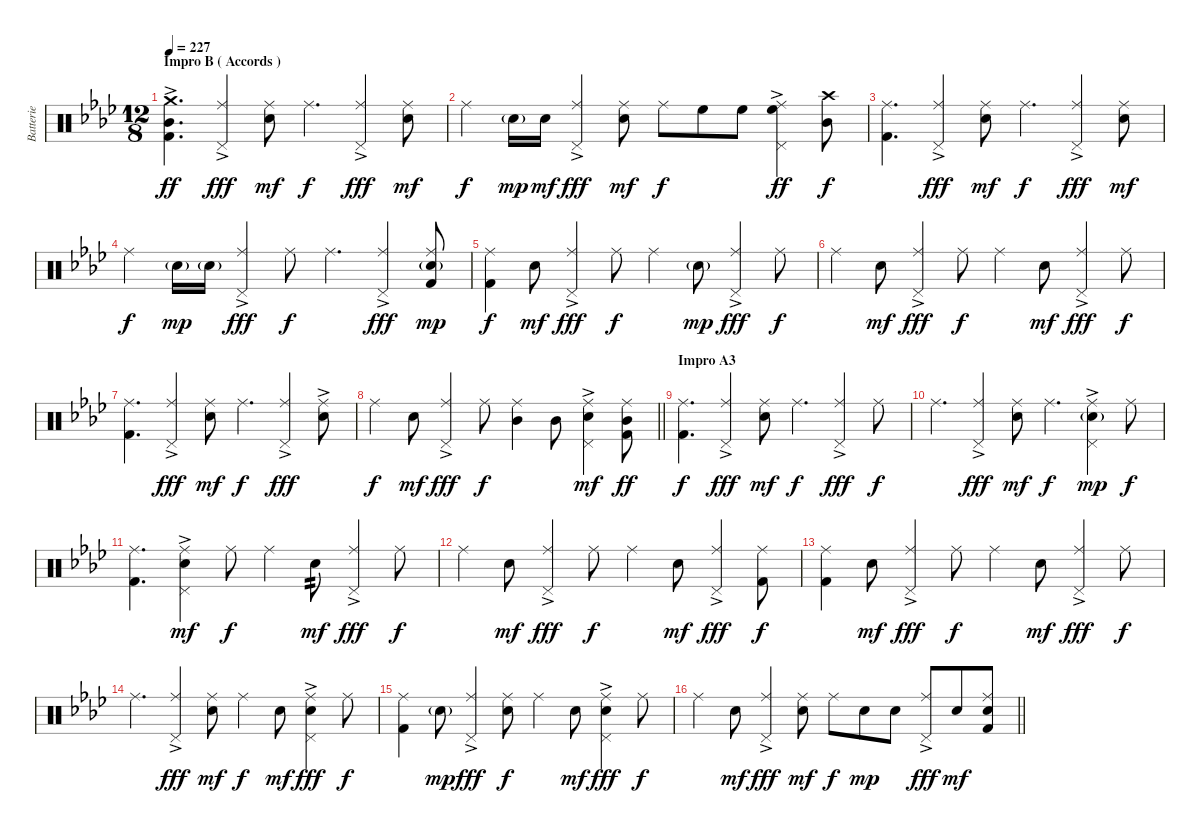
\track ("Batterie" "Batterie") {instrument percussion}
\staff {score}
\articulation defaults
\ts (12 8)
\section ("" "Impro B ( Accords )")
\tempo 227
\clef neutral
\ks fminor
("Crash medium (hit)"{ac} "Mid Tom (hit)" "Kick (hit) 2").4{d dy ff volume 13 balance 8} ("Ride (middle)" "Pedal Hi-Hat (hit)"{ac}).4{dy fff} ("Ride (middle)" "Snare (hit) 2").8{dy mf} "Ride (middle)".4{d dy f} ("Ride (middle)" "Pedal Hi-Hat (hit)"{ac}).4{dy fff} ("Ride (middle)" "Snare (hit) 2").8{dy mf} |
"Ride (middle)".4{dy f} "Snare (hit) 2"{g}.16{dy mp} "Snare (hit) 2".16{dy mf} ("Ride (middle)" "Pedal Hi-Hat (hit)"{ac}).4{dy fff} ("Ride (middle)" "Snare (hit) 2").8{dy mf} "Ride (middle)".8{dy f} "High Floor Tom (hit)".8 "High Floor Tom (hit)".8 ("Ride (middle)" "Pedal Hi-Hat (hit)"{ac} "High Floor Tom (hit)").4{dy ff} ("Crash high (hit)" "Mid Tom (hit)").8{dy f} |
("Ride (middle)" "Kick (hit) 2").4{d} ("Ride (middle)" "Pedal Hi-Hat (hit)"{ac}).4{dy fff} ("Ride (middle)" "Snare (hit) 2").8{dy mf} "Ride (middle)".4{d dy f} ("Ride (middle)" "Pedal Hi-Hat (hit)"{ac}).4{dy fff} ("Ride (middle)" "Snare (hit) 2").8{dy mf} |
"Ride (middle)".4{dy f} "Snare (hit) 2"{g}.16{dy mp} "Snare (hit) 2"{g}.16 ("Ride (middle)" "Pedal Hi-Hat (hit)"{ac}).4{dy fff} "Ride (middle)".8{dy f} "Ride (middle)".4{d} ("Ride (middle)" "Pedal Hi-Hat (hit)"{ac}).4{dy fff} ("Ride (middle)" "Snare (hit) 2"{g} "Kick (hit) 2").8{dy mp} |
("Ride (middle)" "Kick (hit) 2").4{dy f} "Snare (hit) 2".8{dy mf} ("Ride (middle)" "Pedal Hi-Hat (hit)"{ac}).4{dy fff} "Ride (middle)".8{dy f} "Ride (middle)".4 "Snare (hit) 2"{g}.8{dy mp} ("Ride (middle)" "Pedal Hi-Hat (hit)"{ac}).4{dy fff} "Ride (middle)".8{dy f} |
"Ride (middle)".4 "Snare (hit) 2".8{dy mf} ("Ride (middle)" "Pedal Hi-Hat (hit)"{ac}).4{dy fff} "Ride (middle)".8{dy f} "Ride (middle)".4 "Snare (hit) 2".8{dy mf} ("Ride (middle)" "Pedal Hi-Hat (hit)"{ac}).4{dy fff} "Ride (middle)".8{dy f} |
("Ride (middle)" "Kick (hit) 2").4{d} ("Ride (middle)" "Pedal Hi-Hat (hit)"{ac}).4{dy fff} ("Ride (middle)" "Snare (hit) 2").8{dy mf} "Ride (middle)".4{d dy f} ("Ride (middle)" "Pedal Hi-Hat (hit)"{ac}).4{dy fff} ("Ride (middle)"{ac} "Snare (hit) 2"{ac}).8 |
\barLineRight lightlight "Ride (middle)".4{dy f} "Snare (hit) 2".8{dy mf}
("Ride (middle)" "Pedal Hi-Hat (hit)"{ac}).4{dy fff} "Ride (middle)".8{dy f} ("Ride (middle)" "Mid Tom (hit)").4 "Mid Tom (hit)".8 ("Ride (middle)" "Pedal Hi-Hat (hit)"{ac} "Snare (hit) 2").4{dy mf} ("Ride (middle)" "Mid Tom (hit)" "Kick (hit) 2").8{dy ff} |
\section ("" "Impro A3")
("Ride (middle)" "Kick (hit) 2").4{d dy f volume 12 balance 8} ("Ride (middle)" "Pedal Hi-Hat (hit)"{ac}).4{dy fff} ("Ride (middle)" "Snare (hit) 2").8{dy mf} "Ride (middle)".4{d dy f} ("Ride (middle)" "Pedal Hi-Hat (hit)"{ac}).4{dy fff} "Ride (middle)".8{dy f} |
"Ride (middle)".4{d} ("Ride (middle)" "Pedal Hi-Hat (hit)"{ac}).4{dy fff} ("Ride (middle)" "Snare (hit) 2").8{dy mf} "Ride (middle)".4{d dy f} ("Ride (middle)" "Pedal Hi-Hat (hit)"{ac} "Snare (hit) 2"{g}).4{dy mp} "Ride (middle)".8{dy f} |
("Ride (middle)" "Kick (hit) 2").4{d} ("Ride (middle)" "Pedal Hi-Hat (hit)"{ac} "Snare (hit) 2").4{dy mf} "Ride (middle)".8{dy f} "Ride (middle)".4 "Snare (hit) 2".8{tp 2 dy mf} ("Ride (middle)" "Pedal Hi-Hat (hit)"{ac}).4{dy fff} "Ride (middle)".8{dy f} |
"Ride (middle)".4 "Snare (hit) 2".8{dy mf} ("Ride (middle)" "Pedal Hi-Hat (hit)"{ac}).4{dy fff} "Ride (middle)".8{dy f} "Ride (middle)".4 "Snare (hit) 2".8{dy mf} ("Ride (middle)" "Pedal Hi-Hat (hit)"{ac}).4{dy fff} ("Ride (middle)" "Kick (hit) 2").8{dy f} |
("Ride (middle)" "Kick (hit) 2").4 "Snare (hit) 2".8{dy mf} ("Ride (middle)" "Pedal Hi-Hat (hit)"{ac}).4{dy fff} "Ride (middle)".8{dy f} "Ride (middle)".4 "Snare (hit) 2".8{dy mf} ("Ride (middle)" "Pedal Hi-Hat (hit)"{ac}).4{dy fff} "Ride (middle)".8{dy f} |
"Ride (middle)".4{d} ("Ride (middle)" "Pedal Hi-Hat (hit)"{ac}).4{dy fff} ("Ride (middle)" "Snare (hit) 2").8{dy mf} "Ride (middle)".4{dy f} "Snare (hit) 2".8{dy mf} ("Ride (middle)" "Pedal Hi-Hat (hit)"{ac} "Snare (hit) 2").4{dy fff} "Ride (middle)".8{dy f} |
("Ride (middle)" "Kick (hit) 2").4 "Snare (hit) 2"{g}.8{dy mp} ("Ride (middle)" "Pedal Hi-Hat (hit)"{ac}).4{dy fff} ("Ride (middle)" "Snare (hit) 2").8{dy f} "Ride (middle)".4 "Snare (hit) 2".8{dy mf} ("Ride (middle)" "Pedal Hi-Hat (hit)"{ac} "Snare (hit) 2").4{dy fff} "Ride (middle)".8{dy f} |
\barLineRight lightlight "Ride (middle)".4 "Snare (hit) 2".8{dy mf}
("Ride (middle)" "Pedal Hi-Hat (hit)"{ac}).4{dy fff} ("Ride (middle)" "Snare (hit) 2").8{dy mf} "Ride (middle)".8{dy f} "Snare (hit) 2".8{dy mp} "Snare (hit) 2".8 ("Ride (middle)" "Pedal Hi-Hat (hit)"{ac}).8{dy fff} "Snare (hit) 2".8{dy mf} ("Ride (middle)" "Snare (hit) 2" "Kick (hit) 2").8
